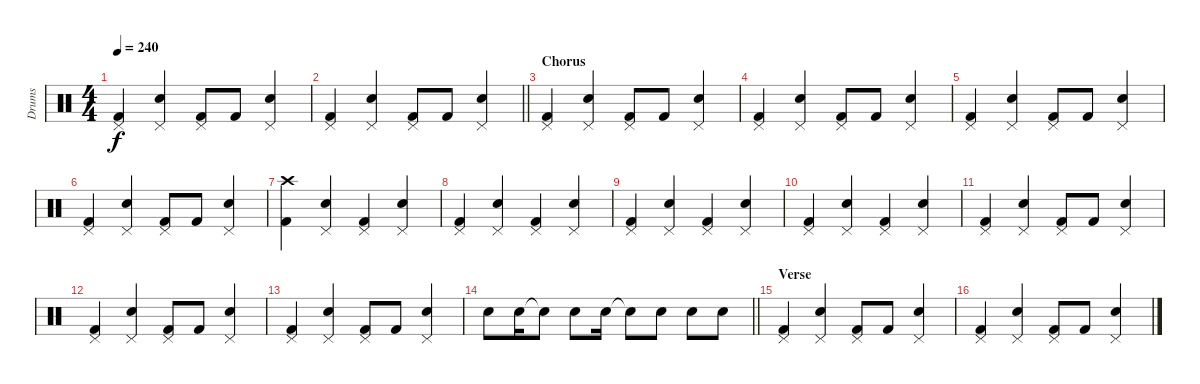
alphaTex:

\track ("Drums" "Drums") {instrument percussion}
\staff {score}
\articulation defaults
\ts (4 4)
\tempo 240
\clef neutral
\ks c
("Pedal Hi-Hat (hit)" "Kick (hit) 2").4{dy f} ("Pedal Hi-Hat (hit)" "Snare (hit) 2").4 ("Pedal Hi-Hat (hit)" "Kick (hit) 2").8 "Kick (hit) 2".8 ("Pedal Hi-Hat (hit)" "Snare (hit) 2").4 |
\barLineRight lightlight
("Pedal Hi-Hat (hit)" "Kick (hit) 2").4 ("Pedal Hi-Hat (hit)" "Snare (hit) 2").4 ("Pedal Hi-Hat (hit)" "Kick (hit) 2").8 "Kick (hit) 2".8 ("Pedal Hi-Hat (hit)" "Snare (hit) 2").4 |
\section ("" "Chorus")
("Pedal Hi-Hat (hit)" "Kick (hit) 2").4 ("Pedal Hi-Hat (hit)" "Snare (hit) 2").4 ("Pedal Hi-Hat (hit)" "Kick (hit) 2").8 "Kick (hit) 2".8 ("Pedal Hi-Hat (hit)" "Snare (hit) 2").4 |
("Pedal Hi-Hat (hit)" "Kick (hit) 2").4 ("Pedal Hi-Hat (hit)" "Snare (hit) 2").4 ("Pedal Hi-Hat (hit)" "Kick (hit) 2").8 "Kick (hit) 2".8 ("Pedal Hi-Hat (hit)" "Snare (hit) 2").4 |
("Pedal Hi-Hat (hit)" "Kick (hit) 2").4 ("Pedal Hi-Hat (hit)" "Snare (hit) 2").4 ("Pedal Hi-Hat (hit)" "Kick (hit) 2").8 "Kick (hit) 2".8 ("Pedal Hi-Hat (hit)" "Snare (hit) 2").4 |
("Pedal Hi-Hat (hit)" "Kick (hit) 2").4 ("Pedal Hi-Hat (hit)" "Snare (hit) 2").4 ("Pedal Hi-Hat (hit)" "Kick (hit) 2").8 "Kick (hit) 2".8 ("Pedal Hi-Hat (hit)" "Snare (hit) 2").4 |
("Crash high (hit)" "Kick (hit) 2").4 ("Pedal Hi-Hat (hit)" "Snare (hit) 2").4 ("Pedal Hi-Hat (hit)" "Kick (hit) 2").4 ("Pedal Hi-Hat (hit)" "Snare (hit) 2").4 |
("Pedal Hi-Hat (hit)" "Kick (hit) 2").4 ("Pedal Hi-Hat (hit)" "Snare (hit) 2").4 ("Pedal Hi-Hat (hit)" "Kick (hit) 2").4 ("Pedal Hi-Hat (hit)" "Snare (hit) 2").4 |
("Pedal Hi-Hat (hit)" "Kick (hit) 2").4 ("Pedal Hi-Hat (hit)" "Snare (hit) 2").4 ("Pedal Hi-Hat (hit)" "Kick (hit) 2").4 ("Pedal Hi-Hat (hit)" "Snare (hit) 2").4 |
("Pedal Hi-Hat (hit)" "Kick (hit) 2").4 ("Pedal Hi-Hat (hit)" "Snare (hit) 2").4 ("Pedal Hi-Hat (hit)" "Kick (hit) 2").4 ("Pedal Hi-Hat (hit)" "Snare (hit) 2").4 |
("Pedal Hi-Hat (hit)" "Kick (hit) 2").4 ("Pedal Hi-Hat (hit)" "Snare (hit) 2").4 ("Pedal Hi-Hat (hit)" "Kick (hit) 2").8 "Kick (hit) 2".8 ("Pedal Hi-Hat (hit)" "Snare (hit) 2").4 |
("Pedal Hi-Hat (hit)" "Kick (hit) 2").4 ("Pedal Hi-Hat (hit)" "Snare (hit) 2").4 ("Pedal Hi-Hat (hit)" "Kick (hit) 2").8 "Kick (hit) 2".8 ("Pedal Hi-Hat (hit)" "Snare (hit) 2").4 |
("Pedal Hi-Hat (hit)" "Kick (hit) 2").4 ("Pedal Hi-Hat (hit)" "Snare (hit) 2").4 ("Pedal Hi-Hat (hit)" "Kick (hit) 2").8 "Kick (hit) 2".8 ("Pedal Hi-Hat (hit)" "Snare (hit) 2").4 |
\barLineRight lightlight "Electric Snare (hit)".8 "Electric Snare (hit)".16 "Electric Snare (hit)"{t}.8 "Electric Snare (hit)".8 "Electric Snare (hit)".16 "Electric Snare (hit)"{t}.8 "Electric Snare (hit)".8 "Electric Snare (hit)".8 "Electric Snare (hit)".8
|
\section ("" "Verse")
("Pedal Hi-Hat (hit)" "Kick (hit) 2").4 ("Pedal Hi-Hat (hit)" "Snare (hit) 2").4 ("Pedal Hi-Hat (hit)" "Kick (hit) 2").8 "Kick (hit) 2".8 ("Pedal Hi-Hat (hit)" "Snare (hit) 2").4 |
("Pedal Hi-Hat (hit)" "Kick (hit) 2").4 ("Pedal Hi-Hat (hit)" "Snare (hit) 2").4 ("Pedal Hi-Hat (hit)" "Kick (hit) 2").8 "Kick (hit) 2".8 ("Pedal Hi-Hat (hit)" "Snare (hit) 2").4
